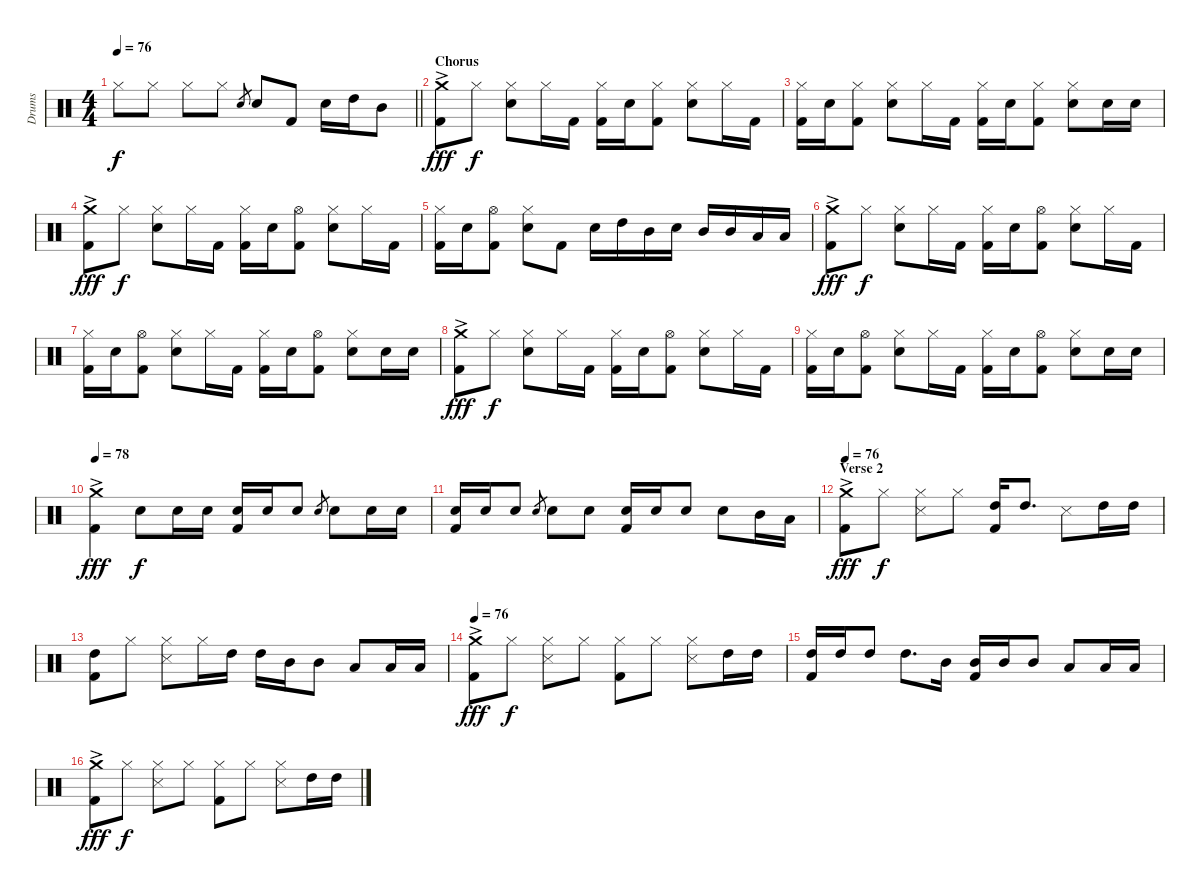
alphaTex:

\track ("Drums" "Drums") {instrument percussion}
\staff {score}
\articulation defaults
\ts (4 4)
\tempo 76
\clef neutral
\barLineRight lightlight
\ks c "Hi-Hat (closed)".8{dy f} "Hi-Hat (closed)".8 "Hi-Hat (closed)".8 "Hi-Hat (closed)".8 "Snare (hit) 2".8{gr} "Snare (hit) 2".8 "Kick (hit) 2".8 "Snare (hit) 2".16 "High Tom (hit)".16 "Mid Tom (hit)".8
|
\section ("" "Chorus")
("Crash medium (hit)"{ac} "Kick (hit) 2").8{dy fff} "Hi-Hat (closed)".8{dy f} ("Hi-Hat (closed)" "Snare (hit) 2").8 "Hi-Hat (closed)".16 "Kick (hit) 2".16 ("Hi-Hat (closed)" "Kick (hit) 2").16 "Snare (hit) 2".16 ("Hi-Hat (closed)" "Kick (hit) 2").8 ("Hi-Hat (closed)" "Snare (hit) 2").8 "Hi-Hat (closed)".16 "Kick (hit) 2".16 |
("Hi-Hat (closed)" "Kick (hit) 2").16 "Snare (hit) 2".16 ("Hi-Hat (closed)" "Kick (hit) 2").8 ("Hi-Hat (closed)" "Snare (hit) 2").8 "Hi-Hat (closed)".16 "Kick (hit) 2".16 ("Hi-Hat (closed)" "Kick (hit) 2").16 "Snare (hit) 2".16 ("Hi-Hat (closed)" "Kick (hit) 2").8 ("Hi-Hat (closed)" "Snare (hit) 2").8 "Snare (hit) 2".16 "Snare (hit) 2".16 |
("Crash medium (hit)"{ac} "Kick (hit) 2").8{dy fff} "Hi-Hat (closed)".8{dy f} ("Hi-Hat (closed)" "Snare (hit) 2").8 "Hi-Hat (closed)".16 "Kick (hit) 2".16 ("Hi-Hat (closed)" "Kick (hit) 2").16 "Snare (hit) 2".16 ("Hi-Hat (open)" "Kick (hit) 2").8 ("Hi-Hat (closed)" "Snare (hit) 2").8 "Hi-Hat (closed)".16 "Kick (hit) 2".16 |
("Hi-Hat (closed)" "Kick (hit) 2").16 "Snare (hit) 2".16 ("Hi-Hat (open)" "Kick (hit) 2").8 ("Hi-Hat (closed)" "Snare (hit) 2").8 "Kick (hit) 2".8 "Snare (hit) 2".16 "High Tom (hit)".16 "Mid Tom (hit)".16 "Snare (hit) 2".16 "Mid Tom (hit)".16 "Mid Tom (hit)".16 "Low Tom (hit)".16 "Low Tom (hit)".16 |
("Crash medium (hit)"{ac} "Kick (hit) 2").8{dy fff} "Hi-Hat (closed)".8{dy f} ("Hi-Hat (closed)" "Snare (hit) 2").8 "Hi-Hat (closed)".16 "Kick (hit) 2".16 ("Hi-Hat (closed)" "Kick (hit) 2").16 "Snare (hit) 2".16 ("Hi-Hat (open)" "Kick (hit) 2").8 ("Hi-Hat (closed)" "Snare (hit) 2").8 "Hi-Hat (closed)".16 "Kick (hit) 2".16 |
("Hi-Hat (closed)" "Kick (hit) 2").16 "Snare (hit) 2".16 ("Hi-Hat (open)" "Kick (hit) 2").8 ("Hi-Hat (closed)" "Snare (hit) 2").8 "Hi-Hat (closed)".16 "Kick (hit) 2".16 ("Hi-Hat (closed)" "Kick (hit) 2").16 "Snare (hit) 2".16 ("Hi-Hat (open)" "Kick (hit) 2").8 ("Hi-Hat (closed)" "Snare (hit) 2").8 "Snare (hit) 2".16 "Snare (hit) 2".16 |
("Crash medium (hit)"{ac} "Kick (hit) 2").8{dy fff} "Hi-Hat (closed)".8{dy f} ("Hi-Hat (closed)" "Snare (hit) 2").8 "Hi-Hat (closed)".16 "Kick (hit) 2".16 ("Hi-Hat (closed)" "Kick (hit) 2").16 "Snare (hit) 2".16 ("Hi-Hat (open)" "Kick (hit) 2").8 ("Hi-Hat (closed)" "Snare (hit) 2").8 "Hi-Hat (closed)".16 "Kick (hit) 2".16 |
("Hi-Hat (closed)" "Kick (hit) 2").16 "Snare (hit) 2".16 ("Hi-Hat (open)" "Kick (hit) 2").8 ("Hi-Hat (closed)" "Snare (hit) 2").8 "Hi-Hat (closed)".16 "Kick (hit) 2".16 ("Hi-Hat (closed)" "Kick (hit) 2").16 "Snare (hit) 2".16 ("Hi-Hat (open)" "Kick (hit) 2").8 ("Hi-Hat (closed)" "Snare (hit) 2").8 "Snare (hit) 2".16 "Snare (hit) 2".16 |
\tempo 78
("Crash medium (hit)"{ac} "Kick (hit) 2").4{dy fff} "Snare (hit) 2".8{dy f} "Snare (hit) 2".16 "Snare (hit) 2".16 ("Snare (hit) 2" "Kick (hit) 2").16 "Snare (hit) 2".16 "Snare (hit) 2".8 "Snare (hit) 2".8{gr} "Snare (hit) 2".8 "Snare (hit) 2".16 "Snare (hit) 2".16 |
("Snare (hit) 2" "Kick (hit) 2").16 "Snare (hit) 2".16 "Snare (hit) 2".8 "Snare (hit) 2".8{gr} "Snare (hit) 2".8 "Snare (hit) 2".8 ("Snare (hit) 2" "Kick (hit) 2").16 "Snare (hit) 2".16 "Snare (hit) 2".8 "Snare (hit) 2".8 "Mid Tom (hit)".16 "Low Tom (hit)".16 |
\section ("" "Verse 2")
\tempo 76
("Crash medium (hit)"{ac} "Kick (hit) 2").8{dy fff} "Hi-Hat (closed)".8{dy f} ("Hi-Hat (closed)" "Snare (side stick) 3").8 "Hi-Hat (closed)".8 ("High Tom (hit)" "Kick (hit) 2").16 "High Tom (hit)".8{d} "Snare (side stick) 3".8 "High Tom (hit)".16 "High Tom (hit)".16 |
("High Tom (hit)" "Kick (hit) 2").8 "Hi-Hat (closed)".8 ("Hi-Hat (closed)" "Snare (side stick) 3").8 "Hi-Hat (closed)".16 "High Tom (hit)".16 "High Tom (hit)".16 "Mid Tom (hit)".16 "Mid Tom (hit)".8 "Low Tom (hit)".8 "Low Tom (hit)".16 "Low Tom (hit)".16 |
\tempo 76
("Crash medium (hit)"{ac} "Kick (hit) 2").8{dy fff} "Hi-Hat (closed)".8{dy f} ("Hi-Hat (closed)" "Snare (side stick) 3").8 "Hi-Hat (closed)".8 ("Hi-Hat (closed)" "Kick (hit) 2").8 "Hi-Hat (closed)".8 ("Hi-Hat (closed)" "Snare (side stick) 3").8 "High Tom (hit)".16 "High Tom (hit)".16 |
("High Tom (hit)" "Kick (hit) 2").16 "High Tom (hit)".16 "High Tom (hit)".8 "High Tom (hit)".8{d} "Mid Tom (hit)".16 ("Mid Tom (hit)" "Kick (hit) 2").16 "Mid Tom (hit)".16 "Mid Tom (hit)".8 "Low Tom (hit)".8 "Low Tom (hit)".16 "Low Tom (hit)".16 |
("Crash medium (hit)"{ac} "Kick (hit) 2").8{dy fff} "Hi-Hat (closed)".8{dy f} ("Hi-Hat (closed)" "Snare (side stick) 3").8 "Hi-Hat (closed)".8 ("Hi-Hat (closed)" "Kick (hit) 2").8 "Hi-Hat (closed)".8 ("Hi-Hat (closed)" "Snare (side stick) 3").8 "High Tom (hit)".16 "High Tom (hit)".16
